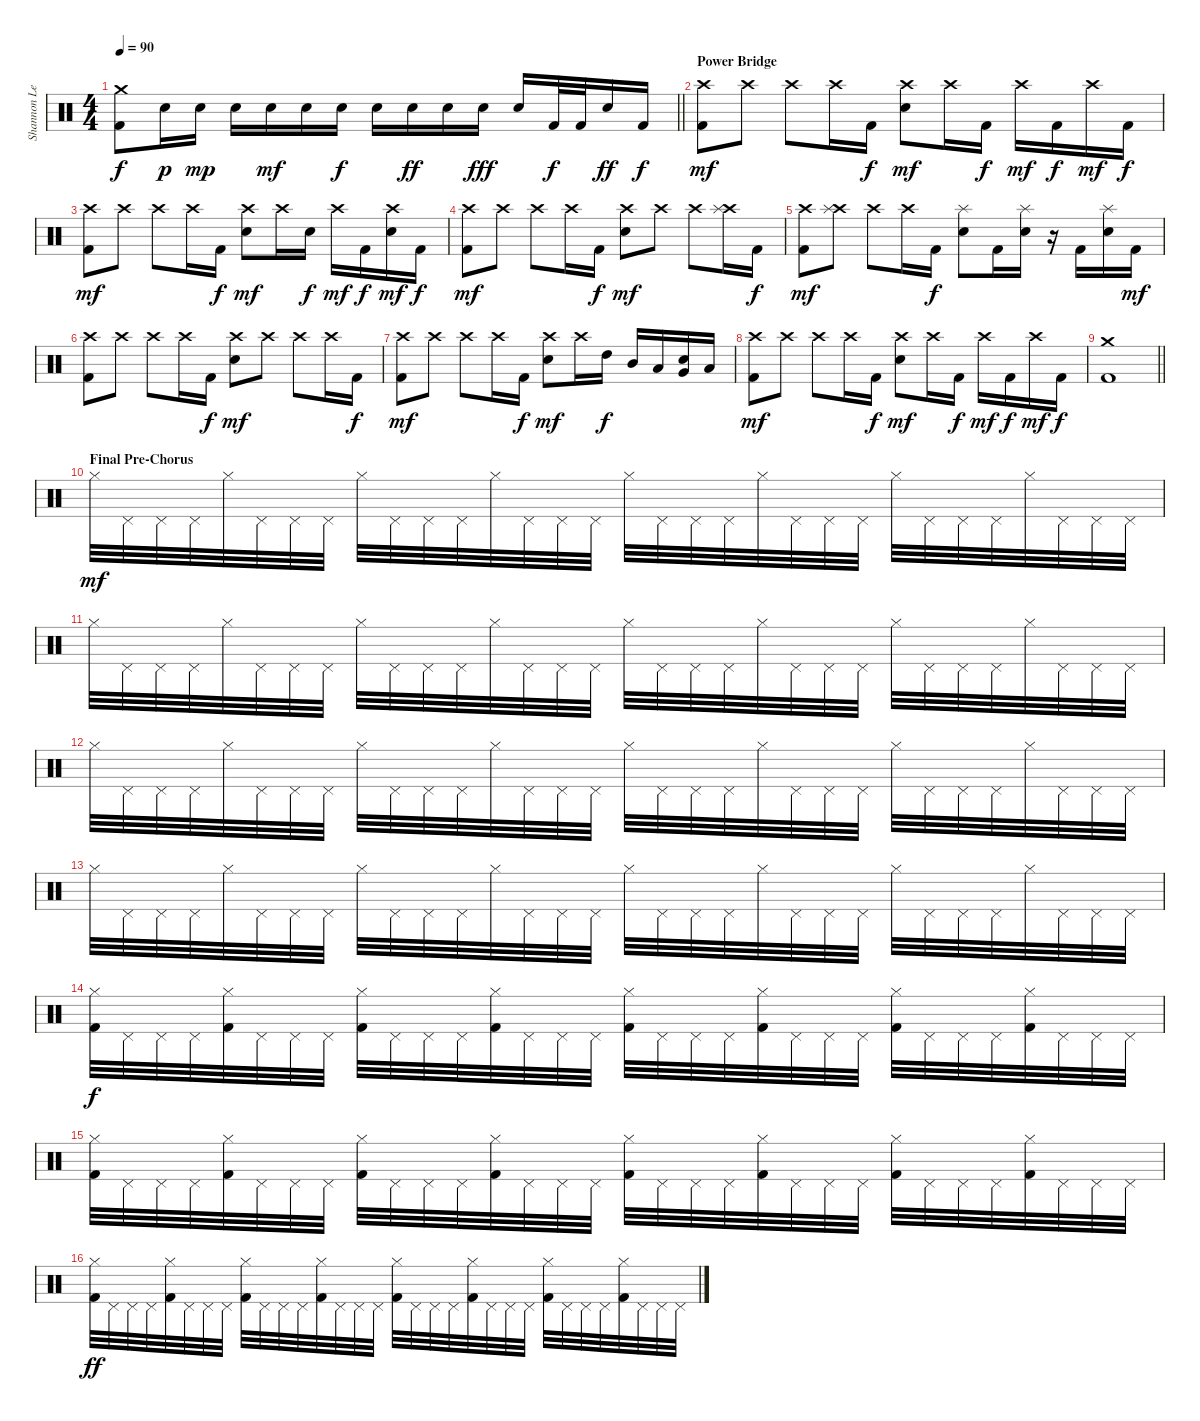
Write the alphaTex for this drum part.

\track ("Shannon Leto - Drums" "Shannon Le") {instrument percussion}
\staff {score}
\articulation defaults
\ts (4 4)
\tempo 90
\clef neutral
\barLineRight lightlight
\ks c
("Crash medium (hit)" "Kick (hit) 2").8{dy f} "Electric Snare (hit)".16{dy p} "Electric Snare (hit)".16{dy mp} "Electric Snare (hit)".16 "Electric Snare (hit)".16{dy mf} "Electric Snare (hit)".16 "Electric Snare (hit)".16{dy f} "Electric Snare (hit)".16 "Electric Snare (hit)".16{dy ff} "Electric Snare (hit)".16 "Electric Snare (hit)".16{dy fff} "Electric Snare (hit)".16 "Kick (hit) 2".32{dy f} "Kick (hit) 2".32 "Electric Snare (hit)".16{dy ff} "Kick (hit) 2".16{dy f} |
\section ("" "Power Bridge")
("Crash high (hit)" "Kick (hit) 2").8{dy mf} "Crash high (hit)".8 "Crash high (hit)".8 "Crash high (hit)".16 "Kick (hit) 2".16{dy f} ("Crash high (hit)" "Electric Snare (hit)").8{dy mf} "Crash high (hit)".16 "Kick (hit) 2".16{dy f} "Crash high (hit)".16{dy mf} "Kick (hit) 2".16{dy f} "Crash high (hit)".16{dy mf} "Kick (hit) 2".16{dy f} |
("Crash high (hit)" "Kick (hit) 2").8{dy mf} "Crash high (hit)".8 "Crash high (hit)".8 "Crash high (hit)".16 "Kick (hit) 2".16{dy f} ("Crash high (hit)" "Electric Snare (hit)").8{dy mf} "Crash high (hit)".16 "Electric Snare (hit)".16{dy f} "Crash high (hit)".16{dy mf} "Kick (hit) 2".16{dy f} ("Crash high (hit)" "Electric Snare (hit)").16{dy mf} "Kick (hit) 2".16{dy f} |
("Crash high (hit)" "Kick (hit) 2").8{dy mf} "Crash high (hit)".8 "Crash high (hit)".8 "Crash high (hit)".16 "Kick (hit) 2".16{dy f} ("Crash high (hit)" "Electric Snare (hit)").8{dy mf} "Crash high (hit)".8 "Crash high (hit)".8 ("Crash high (hit)" "Splash (hit)").16 "Kick (hit) 2".16{dy f} |
("Crash high (hit)" "Kick (hit) 2").8{dy mf} ("Crash high (hit)" "Splash (hit)").8 "Crash high (hit)".8 "Crash high (hit)".16 "Kick (hit) 2".16{dy f} ("Splash (hit)" "Electric Snare (hit)").8 "Kick (hit) 2".16 ("Splash (hit)" "Electric Snare (hit)").16 r.16 "Kick (hit) 2".16 ("Splash (hit)" "Electric Snare (hit)").16 "Kick (hit) 2".16{dy mf} |
("Crash high (hit)" "Kick (hit) 2").8 "Crash high (hit)".8 "Crash high (hit)".8 "Crash high (hit)".16 "Kick (hit) 2".16{dy f} ("Crash high (hit)" "Electric Snare (hit)").8{dy mf} "Crash high (hit)".8 "Crash high (hit)".8 "Crash high (hit)".16 "Kick (hit) 2".16{dy f} |
("Crash high (hit)" "Kick (hit) 2").8{dy mf} "Crash high (hit)".8 "Crash high (hit)".8 "Crash high (hit)".16 "Kick (hit) 2".16{dy f} ("Crash high (hit)" "Electric Snare (hit)").8{dy mf} "Crash high (hit)".16 "High Tom (hit)".16{dy f} "Mid Tom (hit)".16 "Low Tom (hit)".16 ("Electric Snare (hit)" "Very Low Tom (hit)").16 "Low Floor Tom (hit)".16 |
("Crash high (hit)" "Kick (hit) 2").8{dy mf} "Crash high (hit)".8 "Crash high (hit)".8 "Crash high (hit)".16 "Kick (hit) 2".16{dy f} ("Crash high (hit)" "Electric Snare (hit)").8{dy mf} "Crash high (hit)".16 "Kick (hit) 2".16{dy f} "Crash high (hit)".16{dy mf} "Kick (hit) 2".16{dy f} "Crash high (hit)".16{dy mf} "Kick (hit) 2".16{dy f} |
\barLineRight lightlight
("Crash medium (hit)" "Kick (hit) 2").1 |
\section ("" "Final Pre-Chorus")
"Hi-Hat (closed)".32{dy mf} "Pedal Hi-Hat (hit)".32 "Pedal Hi-Hat (hit)".32 "Pedal Hi-Hat (hit)".32 "Hi-Hat (closed)".32 "Pedal Hi-Hat (hit)".32 "Pedal Hi-Hat (hit)".32 "Pedal Hi-Hat (hit)".32 "Hi-Hat (closed)".32 "Pedal Hi-Hat (hit)".32 "Pedal Hi-Hat (hit)".32 "Pedal Hi-Hat (hit)".32 "Hi-Hat (closed)".32 "Pedal Hi-Hat (hit)".32 "Pedal Hi-Hat (hit)".32 "Pedal Hi-Hat (hit)".32 "Hi-Hat (closed)".32 "Pedal Hi-Hat (hit)".32 "Pedal Hi-Hat (hit)".32 "Pedal Hi-Hat (hit)".32 "Hi-Hat (closed)".32 "Pedal Hi-Hat (hit)".32 "Pedal Hi-Hat (hit)".32 "Pedal Hi-Hat (hit)".32 "Hi-Hat (closed)".32 "Pedal Hi-Hat (hit)".32 "Pedal Hi-Hat (hit)".32 "Pedal Hi-Hat (hit)".32 "Hi-Hat (closed)".32 "Pedal Hi-Hat (hit)".32 "Pedal Hi-Hat (hit)".32 "Pedal Hi-Hat (hit)".32 |
"Hi-Hat (closed)".32 "Pedal Hi-Hat (hit)".32 "Pedal Hi-Hat (hit)".32 "Pedal Hi-Hat (hit)".32 "Hi-Hat (closed)".32 "Pedal Hi-Hat (hit)".32 "Pedal Hi-Hat (hit)".32 "Pedal Hi-Hat (hit)".32 "Hi-Hat (closed)".32 "Pedal Hi-Hat (hit)".32 "Pedal Hi-Hat (hit)".32 "Pedal Hi-Hat (hit)".32 "Hi-Hat (closed)".32 "Pedal Hi-Hat (hit)".32 "Pedal Hi-Hat (hit)".32 "Pedal Hi-Hat (hit)".32 "Hi-Hat (closed)".32 "Pedal Hi-Hat (hit)".32 "Pedal Hi-Hat (hit)".32 "Pedal Hi-Hat (hit)".32 "Hi-Hat (closed)".32 "Pedal Hi-Hat (hit)".32 "Pedal Hi-Hat (hit)".32 "Pedal Hi-Hat (hit)".32 "Hi-Hat (closed)".32 "Pedal Hi-Hat (hit)".32 "Pedal Hi-Hat (hit)".32 "Pedal Hi-Hat (hit)".32 "Hi-Hat (closed)".32 "Pedal Hi-Hat (hit)".32 "Pedal Hi-Hat (hit)".32 "Pedal Hi-Hat (hit)".32 |
"Hi-Hat (closed)".32 "Pedal Hi-Hat (hit)".32 "Pedal Hi-Hat (hit)".32 "Pedal Hi-Hat (hit)".32 "Hi-Hat (closed)".32 "Pedal Hi-Hat (hit)".32 "Pedal Hi-Hat (hit)".32 "Pedal Hi-Hat (hit)".32 "Hi-Hat (closed)".32 "Pedal Hi-Hat (hit)".32 "Pedal Hi-Hat (hit)".32 "Pedal Hi-Hat (hit)".32 "Hi-Hat (closed)".32 "Pedal Hi-Hat (hit)".32 "Pedal Hi-Hat (hit)".32 "Pedal Hi-Hat (hit)".32 "Hi-Hat (closed)".32 "Pedal Hi-Hat (hit)".32 "Pedal Hi-Hat (hit)".32 "Pedal Hi-Hat (hit)".32 "Hi-Hat (closed)".32 "Pedal Hi-Hat (hit)".32 "Pedal Hi-Hat (hit)".32 "Pedal Hi-Hat (hit)".32 "Hi-Hat (closed)".32 "Pedal Hi-Hat (hit)".32 "Pedal Hi-Hat (hit)".32 "Pedal Hi-Hat (hit)".32 "Hi-Hat (closed)".32 "Pedal Hi-Hat (hit)".32 "Pedal Hi-Hat (hit)".32 "Pedal Hi-Hat (hit)".32 |
"Hi-Hat (closed)".32 "Pedal Hi-Hat (hit)".32 "Pedal Hi-Hat (hit)".32 "Pedal Hi-Hat (hit)".32 "Hi-Hat (closed)".32 "Pedal Hi-Hat (hit)".32 "Pedal Hi-Hat (hit)".32 "Pedal Hi-Hat (hit)".32 "Hi-Hat (closed)".32 "Pedal Hi-Hat (hit)".32 "Pedal Hi-Hat (hit)".32 "Pedal Hi-Hat (hit)".32 "Hi-Hat (closed)".32 "Pedal Hi-Hat (hit)".32 "Pedal Hi-Hat (hit)".32 "Pedal Hi-Hat (hit)".32 "Hi-Hat (closed)".32 "Pedal Hi-Hat (hit)".32 "Pedal Hi-Hat (hit)".32 "Pedal Hi-Hat (hit)".32 "Hi-Hat (closed)".32 "Pedal Hi-Hat (hit)".32 "Pedal Hi-Hat (hit)".32 "Pedal Hi-Hat (hit)".32 "Hi-Hat (closed)".32 "Pedal Hi-Hat (hit)".32 "Pedal Hi-Hat (hit)".32 "Pedal Hi-Hat (hit)".32 "Hi-Hat (closed)".32 "Pedal Hi-Hat (hit)".32 "Pedal Hi-Hat (hit)".32 "Pedal Hi-Hat (hit)".32 |
("Hi-Hat (closed)" "Kick (hit) 2").32{dy f} "Pedal Hi-Hat (hit)".32 "Pedal Hi-Hat (hit)".32 "Pedal Hi-Hat (hit)".32 ("Hi-Hat (closed)" "Kick (hit) 2").32 "Pedal Hi-Hat (hit)".32 "Pedal Hi-Hat (hit)".32 "Pedal Hi-Hat (hit)".32 ("Hi-Hat (closed)" "Kick (hit) 2").32 "Pedal Hi-Hat (hit)".32 "Pedal Hi-Hat (hit)".32 "Pedal Hi-Hat (hit)".32 ("Hi-Hat (closed)" "Kick (hit) 2").32 "Pedal Hi-Hat (hit)".32 "Pedal Hi-Hat (hit)".32 "Pedal Hi-Hat (hit)".32 ("Hi-Hat (closed)" "Kick (hit) 2").32 "Pedal Hi-Hat (hit)".32 "Pedal Hi-Hat (hit)".32 "Pedal Hi-Hat (hit)".32 ("Hi-Hat (closed)" "Kick (hit) 2").32 "Pedal Hi-Hat (hit)".32 "Pedal Hi-Hat (hit)".32 "Pedal Hi-Hat (hit)".32 ("Hi-Hat (closed)" "Kick (hit) 2").32 "Pedal Hi-Hat (hit)".32 "Pedal Hi-Hat (hit)".32 "Pedal Hi-Hat (hit)".32 ("Hi-Hat (closed)" "Kick (hit) 2").32 "Pedal Hi-Hat (hit)".32 "Pedal Hi-Hat (hit)".32 "Pedal Hi-Hat (hit)".32 |
("Hi-Hat (closed)" "Kick (hit) 2").32 "Pedal Hi-Hat (hit)".32 "Pedal Hi-Hat (hit)".32 "Pedal Hi-Hat (hit)".32 ("Hi-Hat (closed)" "Kick (hit) 2").32 "Pedal Hi-Hat (hit)".32 "Pedal Hi-Hat (hit)".32 "Pedal Hi-Hat (hit)".32 ("Hi-Hat (closed)" "Kick (hit) 2").32 "Pedal Hi-Hat (hit)".32 "Pedal Hi-Hat (hit)".32 "Pedal Hi-Hat (hit)".32 ("Hi-Hat (closed)" "Kick (hit) 2").32 "Pedal Hi-Hat (hit)".32 "Pedal Hi-Hat (hit)".32 "Pedal Hi-Hat (hit)".32 ("Hi-Hat (closed)" "Kick (hit) 2").32 "Pedal Hi-Hat (hit)".32 "Pedal Hi-Hat (hit)".32 "Pedal Hi-Hat (hit)".32 ("Hi-Hat (closed)" "Kick (hit) 2").32 "Pedal Hi-Hat (hit)".32 "Pedal Hi-Hat (hit)".32 "Pedal Hi-Hat (hit)".32 ("Hi-Hat (closed)" "Kick (hit) 2").32 "Pedal Hi-Hat (hit)".32 "Pedal Hi-Hat (hit)".32 "Pedal Hi-Hat (hit)".32 ("Hi-Hat (closed)" "Kick (hit) 2").32 "Pedal Hi-Hat (hit)".32 "Pedal Hi-Hat (hit)".32 "Pedal Hi-Hat (hit)".32 |
("Hi-Hat (closed)" "Kick (hit) 2").32{dy ff} "Pedal Hi-Hat (hit)".32 "Pedal Hi-Hat (hit)".32 "Pedal Hi-Hat (hit)".32 ("Hi-Hat (closed)" "Kick (hit) 2").32 "Pedal Hi-Hat (hit)".32 "Pedal Hi-Hat (hit)".32 "Pedal Hi-Hat (hit)".32 ("Hi-Hat (closed)" "Kick (hit) 2").32 "Pedal Hi-Hat (hit)".32 "Pedal Hi-Hat (hit)".32 "Pedal Hi-Hat (hit)".32 ("Hi-Hat (closed)" "Kick (hit) 2").32 "Pedal Hi-Hat (hit)".32 "Pedal Hi-Hat (hit)".32 "Pedal Hi-Hat (hit)".32 ("Hi-Hat (closed)" "Kick (hit) 2").32 "Pedal Hi-Hat (hit)".32 "Pedal Hi-Hat (hit)".32 "Pedal Hi-Hat (hit)".32 ("Hi-Hat (closed)" "Kick (hit) 2").32 "Pedal Hi-Hat (hit)".32 "Pedal Hi-Hat (hit)".32 "Pedal Hi-Hat (hit)".32 ("Hi-Hat (closed)" "Kick (hit) 2").32 "Pedal Hi-Hat (hit)".32 "Pedal Hi-Hat (hit)".32 "Pedal Hi-Hat (hit)".32 ("Hi-Hat (closed)" "Kick (hit) 2").32 "Pedal Hi-Hat (hit)".32 "Pedal Hi-Hat (hit)".32 "Pedal Hi-Hat (hit)".32
